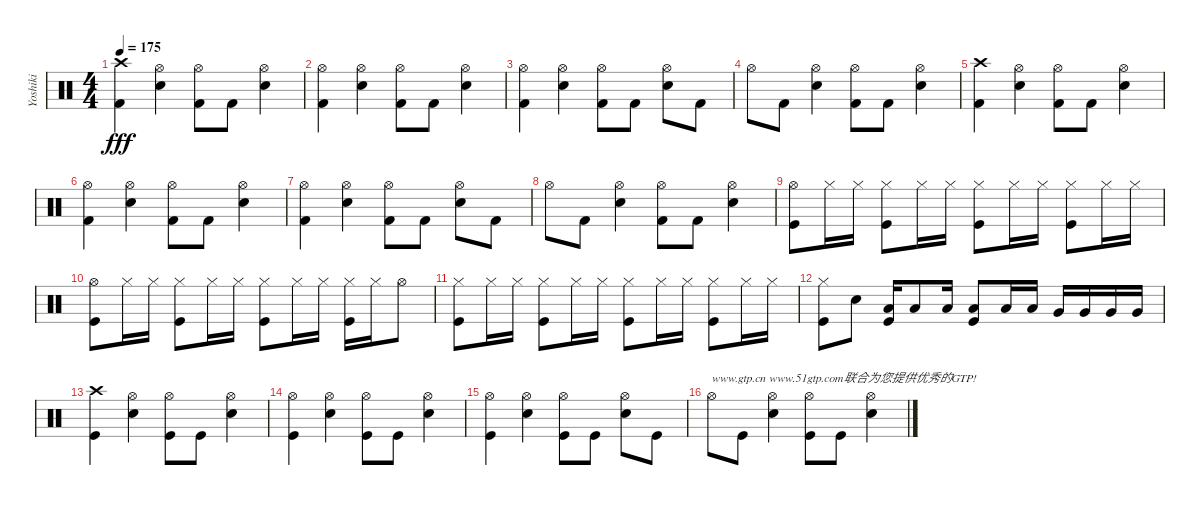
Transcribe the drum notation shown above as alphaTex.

\track ("Yoshiki" "Yoshiki") {instrument percussion}
\staff {score}
\articulation defaults
\ts (4 4)
\tempo 175
\clef neutral
\ks c
("Crash high (hit)" "Kick (hit) 2").4{dy fff} ("Hi-Hat (open)" "Snare (hit) 2").4 ("Hi-Hat (open)" "Kick (hit) 2").8 "Kick (hit) 2".8 ("Hi-Hat (open)" "Snare (hit) 2").4 |
("Hi-Hat (open)" "Kick (hit) 2").4 ("Hi-Hat (open)" "Snare (hit) 2").4 ("Hi-Hat (open)" "Kick (hit) 2").8 "Kick (hit) 2".8 ("Hi-Hat (open)" "Snare (hit) 2").4 |
("Hi-Hat (open)" "Kick (hit) 2").4 ("Hi-Hat (open)" "Snare (hit) 2").4 ("Hi-Hat (open)" "Kick (hit) 2").8 "Kick (hit) 2".8 ("Hi-Hat (open)" "Snare (hit) 2").8 "Kick (hit) 2".8 |
"Hi-Hat (open)".8 "Kick (hit) 2".8 ("Hi-Hat (open)" "Snare (hit) 2").4 ("Hi-Hat (open)" "Kick (hit) 2").8 "Kick (hit) 2".8 ("Hi-Hat (open)" "Snare (hit) 2").4 |
("Crash high (hit)" "Kick (hit) 2").4 ("Hi-Hat (open)" "Snare (hit) 2").4 ("Hi-Hat (open)" "Kick (hit) 2").8 "Kick (hit) 2".8 ("Hi-Hat (open)" "Snare (hit) 2").4 |
("Hi-Hat (open)" "Kick (hit) 2").4 ("Hi-Hat (open)" "Snare (hit) 2").4 ("Hi-Hat (open)" "Kick (hit) 2").8 "Kick (hit) 2".8 ("Hi-Hat (open)" "Snare (hit) 2").4 |
("Hi-Hat (open)" "Kick (hit) 2").4 ("Hi-Hat (open)" "Snare (hit) 2").4 ("Hi-Hat (open)" "Kick (hit) 2").8 "Kick (hit) 2".8 ("Hi-Hat (open)" "Snare (hit) 2").8 "Kick (hit) 2".8 |
"Hi-Hat (open)".8 "Kick (hit) 2".8 ("Hi-Hat (open)" "Snare (hit) 2").4 ("Hi-Hat (open)" "Kick (hit) 2").8 "Kick (hit) 2".8 ("Hi-Hat (open)" "Snare (hit) 2").4 |
("Hi-Hat (open)" "Kick (hit)").8 "Hi-Hat (closed)".16 "Hi-Hat (closed)".16 ("Hi-Hat (closed)" "Kick (hit)").8 "Hi-Hat (closed)".16 "Hi-Hat (closed)".16 ("Hi-Hat (closed)" "Kick (hit)").8 "Hi-Hat (closed)".16 "Hi-Hat (closed)".16 ("Hi-Hat (closed)" "Kick (hit)").8 "Hi-Hat (closed)".16 "Hi-Hat (closed)".16 |
("Hi-Hat (open)" "Kick (hit)").8 "Hi-Hat (closed)".16 "Hi-Hat (closed)".16 ("Hi-Hat (closed)" "Kick (hit)").8 "Hi-Hat (closed)".16 "Hi-Hat (closed)".16 ("Hi-Hat (closed)" "Kick (hit)").8 "Hi-Hat (closed)".16 "Hi-Hat (closed)".16 ("Hi-Hat (closed)" "Kick (hit)").16 "Hi-Hat (closed)".16 "Hi-Hat (open)".8 |
("Hi-Hat (closed)" "Kick (hit)").8 "Hi-Hat (closed)".16 "Hi-Hat (closed)".16 ("Hi-Hat (closed)" "Kick (hit)").8 "Hi-Hat (closed)".16 "Hi-Hat (closed)".16 ("Hi-Hat (closed)" "Kick (hit)").8 "Hi-Hat (closed)".16 "Hi-Hat (closed)".16 ("Hi-Hat (closed)" "Kick (hit)").8 "Hi-Hat (closed)".16 "Hi-Hat (closed)".16 |
("Hi-Hat (closed)" "Kick (hit)").8 "Snare (hit) 2".8 ("Low Tom (hit)" "Kick (hit)").16 "Low Tom (hit)".8 "Low Tom (hit)".16 ("Low Tom (hit)" "Kick (hit)").8 "Low Tom (hit)".16 "Low Tom (hit)".16 "Very Low Tom (hit)".16 "Very Low Tom (hit)".16 "Very Low Tom (hit)".16 "Very Low Tom (hit)".16 |
("Crash high (hit)" "Kick (hit)").4 ("Hi-Hat (open)" "Snare (hit) 2").4 ("Hi-Hat (open)" "Kick (hit)").8 "Kick (hit)".8 ("Hi-Hat (open)" "Snare (hit) 2").4 |
("Hi-Hat (open)" "Kick (hit)").4 ("Hi-Hat (open)" "Snare (hit) 2").4 ("Hi-Hat (open)" "Kick (hit)").8 "Kick (hit)".8 ("Hi-Hat (open)" "Snare (hit) 2").4 |
("Hi-Hat (open)" "Kick (hit)").4 ("Hi-Hat (open)" "Snare (hit) 2").4 ("Hi-Hat (open)" "Kick (hit)").8 "Kick (hit)".8 ("Hi-Hat (open)" "Snare (hit) 2").8 "Kick (hit)".8 |
"Hi-Hat (open)".8{txt "www.gtp.cn www.51gtp.com联合为您提供优秀的GTP!"} "Kick (hit)".8 ("Hi-Hat (open)" "Snare (hit) 2").4 ("Hi-Hat (open)" "Kick (hit)").8 "Kick (hit)".8 ("Hi-Hat (open)" "Snare (hit) 2").4
